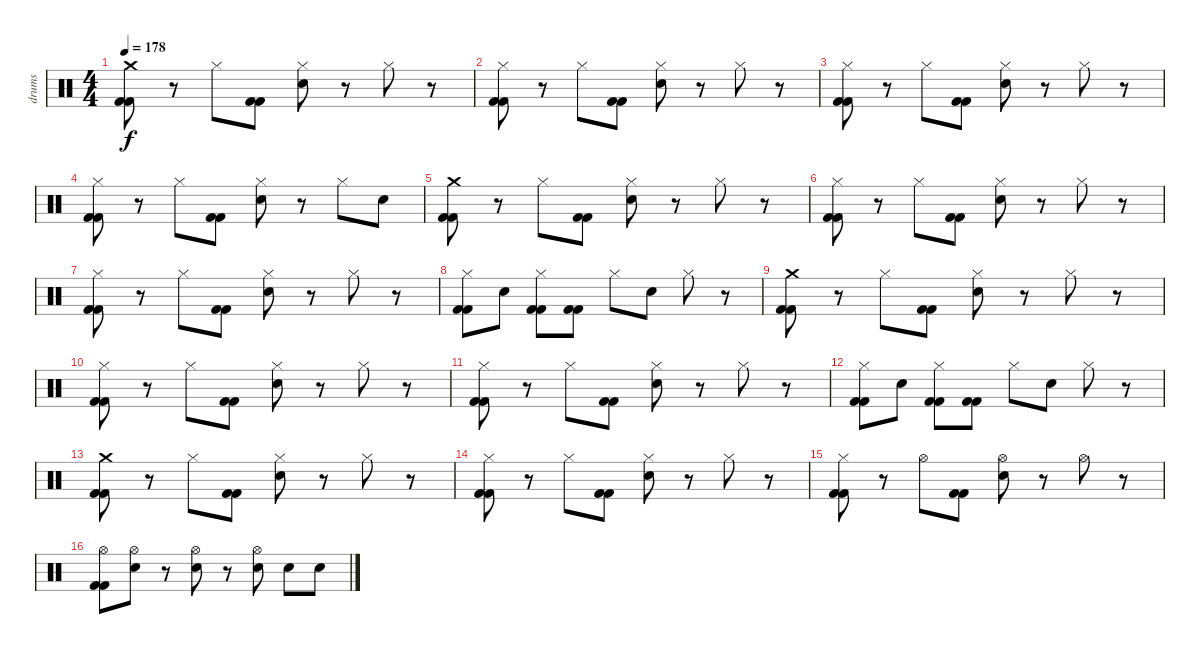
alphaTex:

\track ("drums" "drums") {instrument percussion}
\staff {score}
\articulation defaults
\ts (4 4)
\tempo 178
\clef neutral
\ks c
("Crash medium (hit)" "Kick (hit) 2" "Kick (hit) 2").8{dy f} r.8 "Hi-Hat (closed)".8 ("Kick (hit) 2" "Kick (hit) 2").8 ("Hi-Hat (closed)" "Electric Snare (hit)").8 r.8 "Hi-Hat (closed)".8 r.8 |
("Hi-Hat (closed)" "Kick (hit) 2" "Kick (hit) 2").8 r.8 "Hi-Hat (closed)".8 ("Kick (hit) 2" "Kick (hit) 2").8 ("Hi-Hat (closed)" "Electric Snare (hit)").8 r.8 "Hi-Hat (closed)".8 r.8 |
("Hi-Hat (closed)" "Kick (hit) 2" "Kick (hit) 2").8 r.8 "Hi-Hat (closed)".8 ("Kick (hit) 2" "Kick (hit) 2").8 ("Hi-Hat (closed)" "Electric Snare (hit)").8 r.8 "Hi-Hat (closed)".8 r.8 |
("Hi-Hat (closed)" "Kick (hit) 2" "Kick (hit) 2").8 r.8 "Hi-Hat (closed)".8 ("Kick (hit) 2" "Kick (hit) 2").8 ("Hi-Hat (closed)" "Electric Snare (hit)").8 r.8 "Hi-Hat (closed)".8 "Electric Snare (hit)".8 |
("Crash medium (hit)" "Kick (hit) 2" "Kick (hit) 2").8 r.8 "Hi-Hat (closed)".8 ("Kick (hit) 2" "Kick (hit) 2").8 ("Hi-Hat (closed)" "Electric Snare (hit)").8 r.8 "Hi-Hat (closed)".8 r.8 |
("Hi-Hat (closed)" "Kick (hit) 2" "Kick (hit) 2").8 r.8 "Hi-Hat (closed)".8 ("Kick (hit) 2" "Kick (hit) 2").8 ("Hi-Hat (closed)" "Electric Snare (hit)").8 r.8 "Hi-Hat (closed)".8 r.8 |
("Hi-Hat (closed)" "Kick (hit) 2" "Kick (hit) 2").8 r.8 "Hi-Hat (closed)".8 ("Kick (hit) 2" "Kick (hit) 2").8 ("Hi-Hat (closed)" "Electric Snare (hit)").8 r.8 "Hi-Hat (closed)".8 r.8 |
("Hi-Hat (closed)" "Kick (hit) 2" "Kick (hit) 2").8 "Electric Snare (hit)".8 ("Hi-Hat (closed)" "Kick (hit) 2" "Kick (hit) 2").8 ("Kick (hit) 2" "Kick (hit) 2").8 "Hi-Hat (closed)".8 "Electric Snare (hit)".8 "Hi-Hat (closed)".8 r.8 |
("Crash medium (hit)" "Kick (hit) 2" "Kick (hit) 2").8 r.8 "Hi-Hat (closed)".8 ("Kick (hit) 2" "Kick (hit) 2").8 ("Hi-Hat (closed)" "Electric Snare (hit)").8 r.8 "Hi-Hat (closed)".8 r.8 |
("Hi-Hat (closed)" "Kick (hit) 2" "Kick (hit) 2").8 r.8 "Hi-Hat (closed)".8 ("Kick (hit) 2" "Kick (hit) 2").8 ("Hi-Hat (closed)" "Electric Snare (hit)").8 r.8 "Hi-Hat (closed)".8 r.8 |
("Hi-Hat (closed)" "Kick (hit) 2" "Kick (hit) 2").8 r.8 "Hi-Hat (closed)".8 ("Kick (hit) 2" "Kick (hit) 2").8 ("Hi-Hat (closed)" "Electric Snare (hit)").8 r.8 "Hi-Hat (closed)".8 r.8 |
("Hi-Hat (closed)" "Kick (hit) 2" "Kick (hit) 2").8 "Electric Snare (hit)".8 ("Hi-Hat (closed)" "Kick (hit) 2" "Kick (hit) 2").8 ("Kick (hit) 2" "Kick (hit) 2").8 "Hi-Hat (closed)".8 "Electric Snare (hit)".8 "Hi-Hat (closed)".8 r.8 |
("Crash medium (hit)" "Kick (hit) 2" "Kick (hit) 2").8 r.8 "Hi-Hat (closed)".8 ("Kick (hit) 2" "Kick (hit) 2").8 ("Hi-Hat (closed)" "Electric Snare (hit)").8 r.8 "Hi-Hat (closed)".8 r.8 |
("Hi-Hat (closed)" "Kick (hit) 2" "Kick (hit) 2").8 r.8 "Hi-Hat (closed)".8 ("Kick (hit) 2" "Kick (hit) 2").8 ("Hi-Hat (closed)" "Electric Snare (hit)").8 r.8 "Hi-Hat (closed)".8 r.8 |
("Hi-Hat (closed)" "Kick (hit) 2" "Kick (hit) 2").8 r.8 "Hi-Hat (open)".8 ("Kick (hit) 2" "Kick (hit) 2").8 ("Hi-Hat (open)" "Electric Snare (hit)").8 r.8 "Hi-Hat (open)".8 r.8 |
("Hi-Hat (open)" "Kick (hit) 2" "Kick (hit) 2").8 ("Hi-Hat (open)" "Electric Snare (hit)").8 r.8 ("Hi-Hat (open)" "Electric Snare (hit)").8 r.8 ("Hi-Hat (open)" "Electric Snare (hit)").8 "Electric Snare (hit)".8 "Electric Snare (hit)".8
